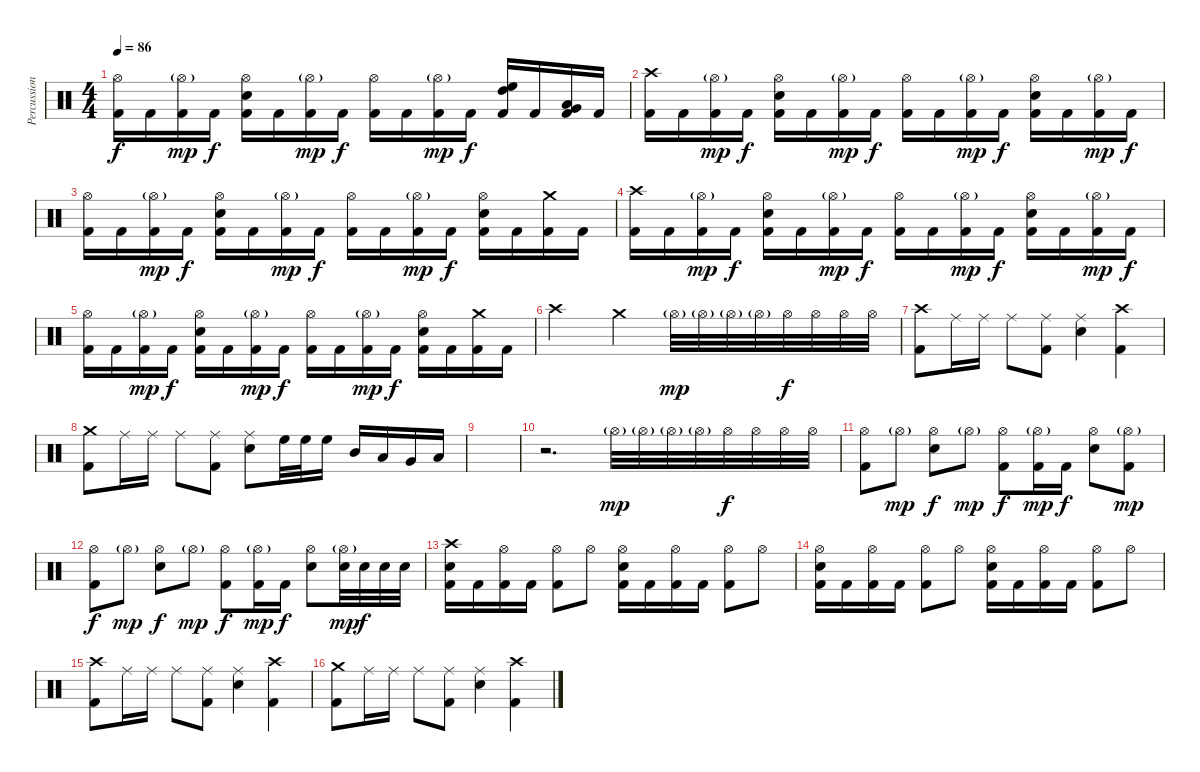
\track ("Percussion" "Percussion") {instrument percussion}
\staff {score}
\articulation defaults
\ts (4 4)
\tempo 86
\clef neutral
\ks c
("Hi-Hat (open)" "Kick (hit) 2").16{dy f} "Kick (hit) 2".16 ("Hi-Hat (open)"{g} "Kick (hit) 2").16{dy mp} "Kick (hit) 2".16{dy f} ("Hi-Hat (open)" "Snare (hit) 2" "Kick (hit) 2").16 "Kick (hit) 2".16 ("Hi-Hat (open)"{g} "Kick (hit) 2").16{dy mp} "Kick (hit) 2".16{dy f} ("Hi-Hat (open)" "Kick (hit) 2").16 "Kick (hit) 2".16 ("Hi-Hat (open)"{g} "Kick (hit) 2").16{dy mp} "Kick (hit) 2".16{dy f} ("High Floor Tom (hit)" "High Tom (hit)" "Kick (hit) 2").16 "Kick (hit) 2".16 ("Low Tom (hit)" "Very Low Tom (hit)" "Kick (hit) 2").16 "Kick (hit) 2".16 |
("Crash high (hit)" "Kick (hit) 2").16 "Kick (hit) 2".16 ("Hi-Hat (open)"{g} "Kick (hit) 2").16{dy mp} "Kick (hit) 2".16{dy f} ("Hi-Hat (open)" "Snare (hit) 2" "Kick (hit) 2").16 "Kick (hit) 2".16 ("Hi-Hat (open)"{g} "Kick (hit) 2").16{dy mp} "Kick (hit) 2".16{dy f} ("Hi-Hat (open)" "Kick (hit) 2").16 "Kick (hit) 2".16 ("Hi-Hat (open)"{g} "Kick (hit) 2").16{dy mp} "Kick (hit) 2".16{dy f} ("Hi-Hat (open)" "Snare (hit) 2" "Kick (hit) 2").16 "Kick (hit) 2".16 ("Hi-Hat (open)"{g} "Kick (hit) 2").16{dy mp} "Kick (hit) 2".16{dy f} |
("Hi-Hat (open)" "Kick (hit) 2").16 "Kick (hit) 2".16 ("Hi-Hat (open)"{g} "Kick (hit) 2").16{dy mp} "Kick (hit) 2".16{dy f} ("Hi-Hat (open)" "Snare (hit) 2" "Kick (hit) 2").16 "Kick (hit) 2".16 ("Hi-Hat (open)"{g} "Kick (hit) 2").16{dy mp} "Kick (hit) 2".16{dy f} ("Hi-Hat (open)" "Kick (hit) 2").16 "Kick (hit) 2".16 ("Hi-Hat (open)"{g} "Kick (hit) 2").16{dy mp} "Kick (hit) 2".16{dy f} ("Hi-Hat (open)" "Snare (hit) 2" "Kick (hit) 2").16 "Kick (hit) 2".16 ("Crash medium (hit)" "Kick (hit) 2").16 "Kick (hit) 2".16 |
("Crash high (hit)" "Kick (hit) 2").16 "Kick (hit) 2".16 ("Hi-Hat (open)"{g} "Kick (hit) 2").16{dy mp} "Kick (hit) 2".16{dy f} ("Hi-Hat (open)" "Snare (hit) 2" "Kick (hit) 2").16 "Kick (hit) 2".16 ("Hi-Hat (open)"{g} "Kick (hit) 2").16{dy mp} "Kick (hit) 2".16{dy f} ("Hi-Hat (open)" "Kick (hit) 2").16 "Kick (hit) 2".16 ("Hi-Hat (open)"{g} "Kick (hit) 2").16{dy mp} "Kick (hit) 2".16{dy f} ("Hi-Hat (open)" "Snare (hit) 2" "Kick (hit) 2").16 "Kick (hit) 2".16 ("Hi-Hat (open)"{g} "Kick (hit) 2").16{dy mp} "Kick (hit) 2".16{dy f} |
("Hi-Hat (open)" "Kick (hit) 2").16 "Kick (hit) 2".16 ("Hi-Hat (open)"{g} "Kick (hit) 2").16{dy mp} "Kick (hit) 2".16{dy f} ("Hi-Hat (open)" "Snare (hit) 2" "Kick (hit) 2").16 "Kick (hit) 2".16 ("Hi-Hat (open)"{g} "Kick (hit) 2").16{dy mp} "Kick (hit) 2".16{dy f} ("Hi-Hat (open)" "Kick (hit) 2").16 "Kick (hit) 2".16 ("Hi-Hat (open)"{g} "Kick (hit) 2").16{dy mp} "Kick (hit) 2".16{dy f} ("Hi-Hat (open)" "Snare (hit) 2" "Kick (hit) 2").16 "Kick (hit) 2".16 ("Crash medium (hit)" "Kick (hit) 2").16 "Kick (hit) 2".16 |
"Crash high (hit)".2 "Crash medium (hit)".4 "Hi-Hat (open)"{g}.32{dy mp} "Hi-Hat (open)"{g}.32 "Hi-Hat (open)"{g}.32 "Hi-Hat (open)"{g}.32 "Hi-Hat (open)".32{dy f} "Hi-Hat (open)".32 "Hi-Hat (open)".32 "Hi-Hat (open)".32 |
("Crash high (hit)" "Kick (hit) 2").8 "Ride (middle)".16 "Ride (middle)".16 "Ride (middle)".8 ("Ride (middle)" "Kick (hit) 2").8 ("Ride (middle)" "Snare (hit) 2").4 ("Crash high (hit)" "Kick (hit) 2").4 |
("Crash medium (hit)" "Kick (hit) 2").8 "Ride (middle)".16 "Ride (middle)".16 "Ride (middle)".8 ("Ride (middle)" "Kick (hit) 2").8 ("Ride (middle)" "Snare (hit) 2").8 "High Floor Tom (hit)".32 "High Floor Tom (hit)".32 "High Floor Tom (hit)".16 "Mid Tom (hit)".16 "Low Tom (hit)".16 "Very Low Tom (hit)".16 "Low Floor Tom (hit)".16 |
|
r.2{d} "Hi-Hat (open)"{g}.32{dy mp} "Hi-Hat (open)"{g}.32 "Hi-Hat (open)"{g}.32 "Hi-Hat (open)"{g}.32 "Hi-Hat (open)".32{dy f} "Hi-Hat (open)".32 "Hi-Hat (open)".32 "Hi-Hat (open)".32 |
("Hi-Hat (open)" "Kick (hit) 2").8 "Hi-Hat (open)"{g}.8{dy mp} ("Hi-Hat (open)" "Snare (hit) 2").8{dy f} "Hi-Hat (open)"{g}.8{dy mp} ("Hi-Hat (open)" "Kick (hit) 2").8{dy f} ("Hi-Hat (open)"{g} "Kick (hit) 2").16{dy mp} "Kick (hit) 2".16{dy f} ("Hi-Hat (open)" "Snare (hit) 2").8 ("Hi-Hat (open)"{g} "Kick (hit) 2").8{dy mp} |
("Hi-Hat (open)" "Kick (hit) 2").8{dy f} "Hi-Hat (open)"{g}.8{dy mp} ("Hi-Hat (open)" "Snare (hit) 2").8{dy f} "Hi-Hat (open)"{g}.8{dy mp} ("Hi-Hat (open)" "Kick (hit) 2").8{dy f} ("Hi-Hat (open)"{g} "Kick (hit) 2").16{dy mp} "Kick (hit) 2".16{dy f} ("Hi-Hat (open)" "Snare (hit) 2").8 ("Hi-Hat (open)"{g} "Snare (hit) 2").32{dy mp} "Snare (hit) 2".32{dy f} "Snare (hit) 2".32 "Snare (hit) 2".32 |
("Crash high (hit)" "Snare (hit) 2" "Kick (hit) 2").16 "Kick (hit) 2".16 ("Hi-Hat (open)" "Kick (hit) 2").16 "Kick (hit) 2".16 ("Hi-Hat (open)" "Kick (hit) 2").8 "Hi-Hat (open)".8 ("Hi-Hat (open)" "Snare (hit) 2" "Kick (hit) 2").16 "Kick (hit) 2".16 ("Hi-Hat (open)" "Kick (hit) 2").16 "Kick (hit) 2".16 ("Hi-Hat (open)" "Kick (hit) 2").8 "Hi-Hat (open)".8 |
("Hi-Hat (open)" "Snare (hit) 2" "Kick (hit) 2").16 "Kick (hit) 2".16 ("Hi-Hat (open)" "Kick (hit) 2").16 "Kick (hit) 2".16 ("Hi-Hat (open)" "Kick (hit) 2").8 "Hi-Hat (open)".8 ("Hi-Hat (open)" "Snare (hit) 2" "Kick (hit) 2").16 "Kick (hit) 2".16 ("Hi-Hat (open)" "Kick (hit) 2").16 "Kick (hit) 2".16 ("Hi-Hat (open)" "Kick (hit) 2").8 "Hi-Hat (open)".8 |
("Crash high (hit)" "Kick (hit) 2").8 "Ride (middle)".16 "Ride (middle)".16 "Ride (middle)".8 ("Ride (middle)" "Kick (hit) 2").8 ("Ride (middle)" "Snare (hit) 2").4 ("Crash high (hit)" "Kick (hit) 2").4 |
("Crash medium (hit)" "Kick (hit) 2").8 "Ride (middle)".16 "Ride (middle)".16 "Ride (middle)".8 ("Ride (middle)" "Kick (hit) 2").8 ("Ride (middle)" "Snare (hit) 2").4 ("Crash high (hit)" "Kick (hit) 2").4
